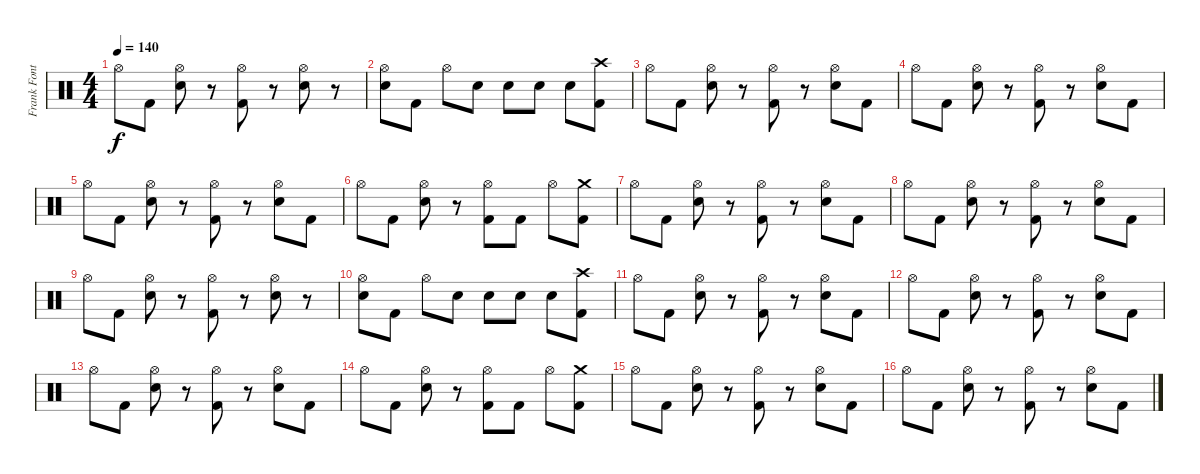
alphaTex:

\track ("Frank Fontsere" "Frank Font") {instrument percussion}
\staff {score}
\articulation defaults
\ts (4 4)
\tempo 140
\clef neutral
\ks c "Hi-Hat (open)".8{dy f} "Kick (hit) 2".8
("Hi-Hat (open)" "Electric Snare (hit)").8 r.8 ("Hi-Hat (open)" "Kick (hit) 2").8 r.8 ("Hi-Hat (open)" "Electric Snare (hit)").8 r.8 |
("Hi-Hat (open)" "Electric Snare (hit)").8 "Kick (hit) 2".8 "Hi-Hat (open)".8 "Electric Snare (hit)".8 "Electric Snare (hit)".8 "Electric Snare (hit)".8 "Electric Snare (hit)".8 ("Crash high (hit)" "Kick (hit) 2").8 |
"Hi-Hat (open)".8 "Kick (hit) 2".8 ("Hi-Hat (open)" "Electric Snare (hit)").8 r.8 ("Hi-Hat (open)" "Kick (hit) 2").8 r.8 ("Hi-Hat (open)" "Electric Snare (hit)").8 "Kick (hit) 2".8 |
"Hi-Hat (open)".8 "Kick (hit) 2".8 ("Hi-Hat (open)" "Electric Snare (hit)").8 r.8 ("Hi-Hat (open)" "Kick (hit) 2").8 r.8 ("Hi-Hat (open)" "Electric Snare (hit)").8 "Kick (hit) 2".8 |
"Hi-Hat (open)".8 "Kick (hit) 2".8 ("Hi-Hat (open)" "Electric Snare (hit)").8 r.8 ("Hi-Hat (open)" "Kick (hit) 2").8 r.8 ("Hi-Hat (open)" "Electric Snare (hit)").8 "Kick (hit) 2".8 |
"Hi-Hat (open)".8 "Kick (hit) 2".8 ("Hi-Hat (open)" "Electric Snare (hit)").8 r.8 ("Hi-Hat (open)" "Kick (hit) 2").8 "Kick (hit) 2".8 "Hi-Hat (open)".8 ("Crash medium (hit)" "Kick (hit) 2").8 |
"Hi-Hat (open)".8 "Kick (hit) 2".8 ("Hi-Hat (open)" "Electric Snare (hit)").8 r.8 ("Hi-Hat (open)" "Kick (hit) 2").8 r.8 ("Hi-Hat (open)" "Electric Snare (hit)").8 "Kick (hit) 2".8 |
"Hi-Hat (open)".8 "Kick (hit) 2".8 ("Hi-Hat (open)" "Electric Snare (hit)").8 r.8 ("Hi-Hat (open)" "Kick (hit) 2").8 r.8 ("Hi-Hat (open)" "Electric Snare (hit)").8 "Kick (hit) 2".8 |
"Hi-Hat (open)".8 "Kick (hit) 2".8 ("Hi-Hat (open)" "Electric Snare (hit)").8 r.8 ("Hi-Hat (open)" "Kick (hit) 2").8 r.8 ("Hi-Hat (open)" "Electric Snare (hit)").8 r.8 |
("Hi-Hat (open)" "Electric Snare (hit)").8 "Kick (hit) 2".8 "Hi-Hat (open)".8 "Electric Snare (hit)".8 "Electric Snare (hit)".8 "Electric Snare (hit)".8 "Electric Snare (hit)".8 ("Crash high (hit)" "Kick (hit) 2").8 |
"Hi-Hat (open)".8 "Kick (hit) 2".8 ("Hi-Hat (open)" "Electric Snare (hit)").8 r.8 ("Hi-Hat (open)" "Kick (hit) 2").8 r.8 ("Hi-Hat (open)" "Electric Snare (hit)").8 "Kick (hit) 2".8 |
"Hi-Hat (open)".8 "Kick (hit) 2".8 ("Hi-Hat (open)" "Electric Snare (hit)").8 r.8 ("Hi-Hat (open)" "Kick (hit) 2").8 r.8 ("Hi-Hat (open)" "Electric Snare (hit)").8 "Kick (hit) 2".8 |
"Hi-Hat (open)".8 "Kick (hit) 2".8 ("Hi-Hat (open)" "Electric Snare (hit)").8 r.8 ("Hi-Hat (open)" "Kick (hit) 2").8 r.8 ("Hi-Hat (open)" "Electric Snare (hit)").8 "Kick (hit) 2".8 |
"Hi-Hat (open)".8 "Kick (hit) 2".8 ("Hi-Hat (open)" "Electric Snare (hit)").8 r.8 ("Hi-Hat (open)" "Kick (hit) 2").8 "Kick (hit) 2".8 "Hi-Hat (open)".8 ("Crash medium (hit)" "Kick (hit) 2").8 |
"Hi-Hat (open)".8 "Kick (hit) 2".8 ("Hi-Hat (open)" "Electric Snare (hit)").8 r.8 ("Hi-Hat (open)" "Kick (hit) 2").8 r.8 ("Hi-Hat (open)" "Electric Snare (hit)").8 "Kick (hit) 2".8 |
"Hi-Hat (open)".8 "Kick (hit) 2".8 ("Hi-Hat (open)" "Electric Snare (hit)").8 r.8 ("Hi-Hat (open)" "Kick (hit) 2").8 r.8 ("Hi-Hat (open)" "Electric Snare (hit)").8 "Kick (hit) 2".8
